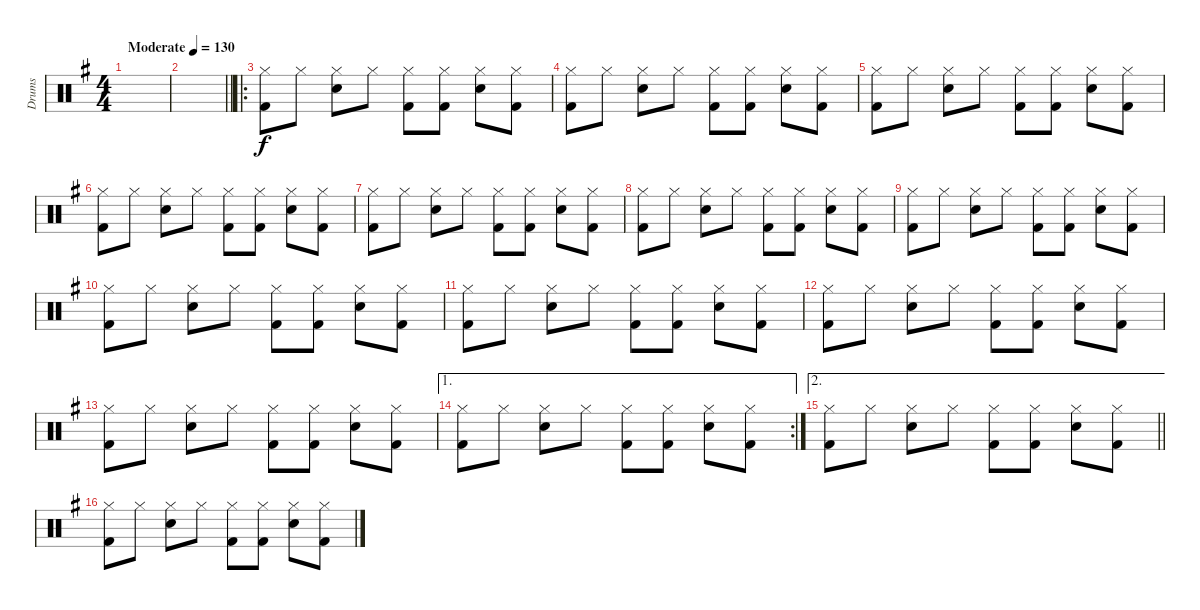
\track ("Drums" "Drums") {instrument percussion}
\staff {score}
\articulation defaults
\ts (4 4)
\tempo (130 "Moderate")
\clef neutral
\ks g
|
\barLineRight lightlight
|
\ro
("Hi-Hat (closed)" "Kick (hit) 2").8 "Hi-Hat (closed)".8 ("Hi-Hat (closed)" "Snare (hit) 2").8 "Hi-Hat (closed)".8 ("Hi-Hat (closed)" "Kick (hit) 2").8 ("Hi-Hat (closed)" "Kick (hit) 2").8 ("Hi-Hat (closed)" "Snare (hit) 2").8 ("Hi-Hat (closed)" "Kick (hit) 2").8 |
("Hi-Hat (closed)" "Kick (hit) 2").8 "Hi-Hat (closed)".8 ("Hi-Hat (closed)" "Snare (hit) 2").8 "Hi-Hat (closed)".8 ("Hi-Hat (closed)" "Kick (hit) 2").8 ("Hi-Hat (closed)" "Kick (hit) 2").8 ("Hi-Hat (closed)" "Snare (hit) 2").8 ("Hi-Hat (closed)" "Kick (hit) 2").8 |
("Hi-Hat (closed)" "Kick (hit) 2").8 "Hi-Hat (closed)".8 ("Hi-Hat (closed)" "Snare (hit) 2").8 "Hi-Hat (closed)".8 ("Hi-Hat (closed)" "Kick (hit) 2").8 ("Hi-Hat (closed)" "Kick (hit) 2").8 ("Hi-Hat (closed)" "Snare (hit) 2").8 ("Hi-Hat (closed)" "Kick (hit) 2").8 |
("Hi-Hat (closed)" "Kick (hit) 2").8 "Hi-Hat (closed)".8 ("Hi-Hat (closed)" "Snare (hit) 2").8 "Hi-Hat (closed)".8 ("Hi-Hat (closed)" "Kick (hit) 2").8 ("Hi-Hat (closed)" "Kick (hit) 2").8 ("Hi-Hat (closed)" "Snare (hit) 2").8 ("Hi-Hat (closed)" "Kick (hit) 2").8 |
("Hi-Hat (closed)" "Kick (hit) 2").8 "Hi-Hat (closed)".8 ("Hi-Hat (closed)" "Snare (hit) 2").8 "Hi-Hat (closed)".8 ("Hi-Hat (closed)" "Kick (hit) 2").8 ("Hi-Hat (closed)" "Kick (hit) 2").8 ("Hi-Hat (closed)" "Snare (hit) 2").8 ("Hi-Hat (closed)" "Kick (hit) 2").8 |
("Hi-Hat (closed)" "Kick (hit) 2").8 "Hi-Hat (closed)".8 ("Hi-Hat (closed)" "Snare (hit) 2").8 "Hi-Hat (closed)".8 ("Hi-Hat (closed)" "Kick (hit) 2").8 ("Hi-Hat (closed)" "Kick (hit) 2").8 ("Hi-Hat (closed)" "Snare (hit) 2").8 ("Hi-Hat (closed)" "Kick (hit) 2").8 |
("Hi-Hat (closed)" "Kick (hit) 2").8 "Hi-Hat (closed)".8 ("Hi-Hat (closed)" "Snare (hit) 2").8 "Hi-Hat (closed)".8 ("Hi-Hat (closed)" "Kick (hit) 2").8 ("Hi-Hat (closed)" "Kick (hit) 2").8 ("Hi-Hat (closed)" "Snare (hit) 2").8 ("Hi-Hat (closed)" "Kick (hit) 2").8 |
("Hi-Hat (closed)" "Kick (hit) 2").8 "Hi-Hat (closed)".8 ("Hi-Hat (closed)" "Snare (hit) 2").8 "Hi-Hat (closed)".8 ("Hi-Hat (closed)" "Kick (hit) 2").8 ("Hi-Hat (closed)" "Kick (hit) 2").8 ("Hi-Hat (closed)" "Snare (hit) 2").8 ("Hi-Hat (closed)" "Kick (hit) 2").8 |
("Hi-Hat (closed)" "Kick (hit) 2").8 "Hi-Hat (closed)".8 ("Hi-Hat (closed)" "Snare (hit) 2").8 "Hi-Hat (closed)".8 ("Hi-Hat (closed)" "Kick (hit) 2").8 ("Hi-Hat (closed)" "Kick (hit) 2").8 ("Hi-Hat (closed)" "Snare (hit) 2").8 ("Hi-Hat (closed)" "Kick (hit) 2").8 |
("Hi-Hat (closed)" "Kick (hit) 2").8 "Hi-Hat (closed)".8 ("Hi-Hat (closed)" "Snare (hit) 2").8 "Hi-Hat (closed)".8 ("Hi-Hat (closed)" "Kick (hit) 2").8 ("Hi-Hat (closed)" "Kick (hit) 2").8 ("Hi-Hat (closed)" "Snare (hit) 2").8 ("Hi-Hat (closed)" "Kick (hit) 2").8 |
("Hi-Hat (closed)" "Kick (hit) 2").8 "Hi-Hat (closed)".8 ("Hi-Hat (closed)" "Snare (hit) 2").8 "Hi-Hat (closed)".8 ("Hi-Hat (closed)" "Kick (hit) 2").8 ("Hi-Hat (closed)" "Kick (hit) 2").8 ("Hi-Hat (closed)" "Snare (hit) 2").8 ("Hi-Hat (closed)" "Kick (hit) 2").8 |
\ae 1
\rc 2
("Hi-Hat (closed)" "Kick (hit) 2").8 "Hi-Hat (closed)".8 ("Hi-Hat (closed)" "Snare (hit) 2").8 "Hi-Hat (closed)".8 ("Hi-Hat (closed)" "Kick (hit) 2").8 ("Hi-Hat (closed)" "Kick (hit) 2").8 ("Hi-Hat (closed)" "Snare (hit) 2").8 ("Hi-Hat (closed)" "Kick (hit) 2").8 |
\ae 2
\barLineRight lightlight
("Hi-Hat (closed)" "Kick (hit) 2").8 "Hi-Hat (closed)".8 ("Hi-Hat (closed)" "Snare (hit) 2").8 "Hi-Hat (closed)".8 ("Hi-Hat (closed)" "Kick (hit) 2").8 ("Hi-Hat (closed)" "Kick (hit) 2").8 ("Hi-Hat (closed)" "Snare (hit) 2").8 ("Hi-Hat (closed)" "Kick (hit) 2").8 |
("Hi-Hat (closed)" "Kick (hit) 2").8 "Hi-Hat (closed)".8 ("Hi-Hat (closed)" "Snare (hit) 2").8 "Hi-Hat (closed)".8 ("Hi-Hat (closed)" "Kick (hit) 2").8 ("Hi-Hat (closed)" "Kick (hit) 2").8 ("Hi-Hat (closed)" "Snare (hit) 2").8 ("Hi-Hat (closed)" "Kick (hit) 2").8
